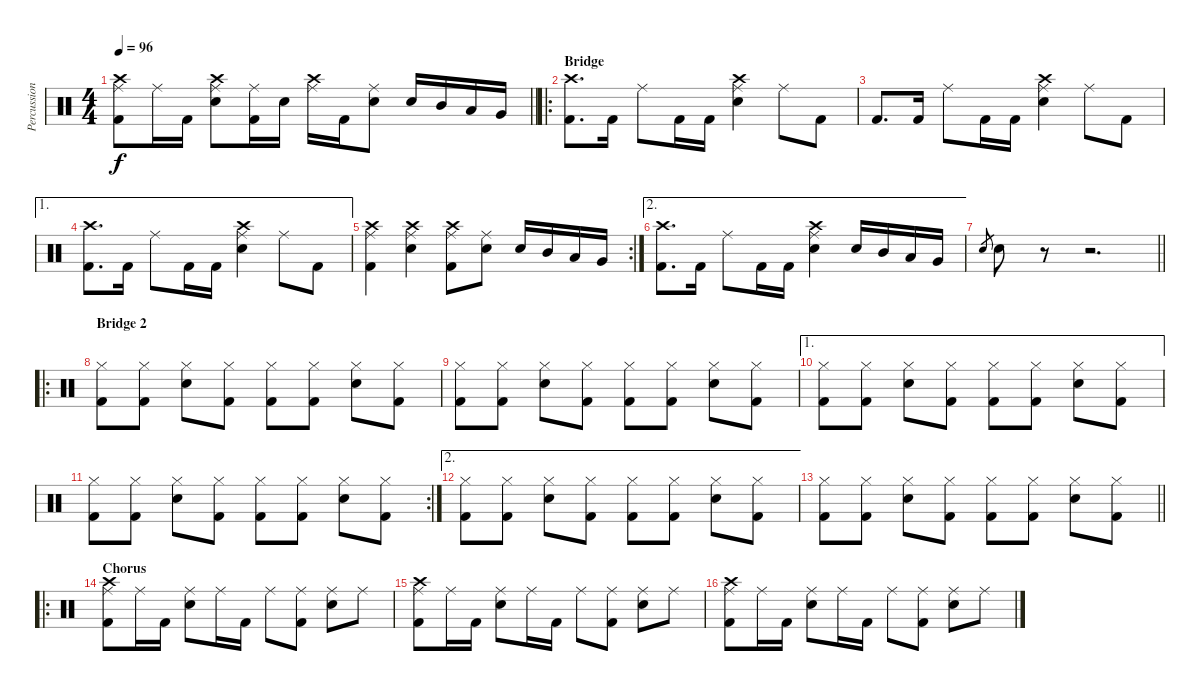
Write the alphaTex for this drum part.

\track ("Percussion" "Percussion") {instrument percussion}
\staff {score}
\articulation defaults
\ts (4 4)
\tempo 96
\clef neutral
\barLineRight lightlight
\ks c
("Crash high (hit)" "Ride (middle)" "Kick (hit) 2").8{dy f} "Ride (middle)".16 "Kick (hit) 2".16 ("Crash high (hit)" "Ride (middle)" "Electric Snare (hit)").8 ("Ride (middle)" "Kick (hit) 2").16 "Electric Snare (hit)".16 ("Crash high (hit)" "Ride (middle)").16 "Kick (hit) 2".16 ("Ride (middle)" "Electric Snare (hit)").8 "Electric Snare (hit)".16 "Mid Tom (hit)".16 "Low Tom (hit)".16 "Very Low Tom (hit)".16 |
\ro
\section ("" "Bridge")
("Crash high (hit)" "Kick (hit) 2").8{d} "Kick (hit) 2".16 "Ride (middle)".8 "Kick (hit) 2".16 "Kick (hit) 2".16 ("Crash high (hit)" "Ride (middle)" "Electric Snare (hit)").4 "Ride (middle)".8 "Kick (hit) 2".8 |
"Kick (hit) 2".8{d} "Kick (hit) 2".16 "Ride (middle)".8 "Kick (hit) 2".16 "Kick (hit) 2".16 ("Crash high (hit)" "Ride (middle)" "Electric Snare (hit)").4 "Ride (middle)".8 "Kick (hit) 2".8 |
\ae 1
("Crash high (hit)" "Kick (hit) 2").8{d} "Kick (hit) 2".16 "Ride (middle)".8 "Kick (hit) 2".16 "Kick (hit) 2".16 ("Crash high (hit)" "Ride (middle)" "Electric Snare (hit)").4 "Ride (middle)".8 "Kick (hit) 2".8 |
\rc 2
("Crash high (hit)" "Ride (middle)" "Kick (hit) 2").4 ("Crash high (hit)" "Ride (middle)" "Electric Snare (hit)").4 ("Crash high (hit)" "Ride (middle)" "Kick (hit) 2").8 ("Ride (middle)" "Electric Snare (hit)").8 "Electric Snare (hit)".16 "Mid Tom (hit)".16 "Low Tom (hit)".16 "Very Low Tom (hit)".16 |
\ae 2
("Crash high (hit)" "Kick (hit) 2").8{d} "Kick (hit) 2".16 "Ride (middle)".8 "Kick (hit) 2".16 "Kick (hit) 2".16 ("Crash high (hit)" "Ride (middle)" "Electric Snare (hit)").4 "Snare (hit) 2".16 "Mid Tom (hit)".16 "Low Tom (hit)".16 "Very Low Tom (hit)".16 |
\barLineRight lightlight "Electric Snare (hit)".8{gr} "Electric Snare (hit)".8
r.8 r.2{d} |
\ro
\section ("" "Bridge 2")
("Hi-Hat (closed)" "Kick (hit) 2").8 ("Hi-Hat (closed)" "Kick (hit) 2").8 ("Hi-Hat (closed)" "Electric Snare (hit)").8 ("Hi-Hat (closed)" "Kick (hit) 2").8 ("Hi-Hat (closed)" "Kick (hit) 2").8 ("Hi-Hat (closed)" "Kick (hit) 2").8 ("Hi-Hat (closed)" "Electric Snare (hit)").8 ("Hi-Hat (closed)" "Kick (hit) 2").8 |
("Hi-Hat (closed)" "Kick (hit) 2").8 ("Hi-Hat (closed)" "Kick (hit) 2").8 ("Hi-Hat (closed)" "Electric Snare (hit)").8 ("Hi-Hat (closed)" "Kick (hit) 2").8 ("Hi-Hat (closed)" "Kick (hit) 2").8 ("Hi-Hat (closed)" "Kick (hit) 2").8 ("Hi-Hat (closed)" "Electric Snare (hit)").8 ("Hi-Hat (closed)" "Kick (hit) 2").8 |
\ae 1
("Hi-Hat (closed)" "Kick (hit) 2").8 ("Hi-Hat (closed)" "Kick (hit) 2").8 ("Hi-Hat (closed)" "Electric Snare (hit)").8 ("Hi-Hat (closed)" "Kick (hit) 2").8 ("Hi-Hat (closed)" "Kick (hit) 2").8 ("Hi-Hat (closed)" "Kick (hit) 2").8 ("Hi-Hat (closed)" "Electric Snare (hit)").8 ("Hi-Hat (closed)" "Kick (hit) 2").8 |
\rc 2
("Hi-Hat (closed)" "Kick (hit) 2").8 ("Hi-Hat (closed)" "Kick (hit) 2").8 ("Hi-Hat (closed)" "Electric Snare (hit)").8 ("Hi-Hat (closed)" "Kick (hit) 2").8 ("Hi-Hat (closed)" "Kick (hit) 2").8 ("Hi-Hat (closed)" "Kick (hit) 2").8 ("Hi-Hat (closed)" "Electric Snare (hit)").8 ("Hi-Hat (closed)" "Kick (hit) 2").8 |
\ae 2
("Hi-Hat (closed)" "Kick (hit) 2").8 ("Hi-Hat (closed)" "Kick (hit) 2").8 ("Hi-Hat (closed)" "Electric Snare (hit)").8 ("Hi-Hat (closed)" "Kick (hit) 2").8 ("Hi-Hat (closed)" "Kick (hit) 2").8 ("Hi-Hat (closed)" "Kick (hit) 2").8 ("Hi-Hat (closed)" "Electric Snare (hit)").8 ("Hi-Hat (closed)" "Kick (hit) 2").8 |
\barLineRight lightlight
("Hi-Hat (closed)" "Kick (hit) 2").8 ("Hi-Hat (closed)" "Kick (hit) 2").8 ("Hi-Hat (closed)" "Electric Snare (hit)").8 ("Hi-Hat (closed)" "Kick (hit) 2").8 ("Hi-Hat (closed)" "Kick (hit) 2").8 ("Hi-Hat (closed)" "Kick (hit) 2").8 ("Hi-Hat (closed)" "Electric Snare (hit)").8 ("Hi-Hat (closed)" "Kick (hit) 2").8 |
\ro
\section ("" "Chorus")
("Crash high (hit)" "Ride (middle)" "Kick (hit) 2").8 "Ride (middle)".16 "Kick (hit) 2".16 ("Ride (middle)" "Electric Snare (hit)").8 "Ride (middle)".16 "Kick (hit) 2".16 "Ride (middle)".8 ("Ride (middle)" "Kick (hit) 2").8 ("Ride (middle)" "Electric Snare (hit)").8 "Ride (middle)".8 |
("Crash high (hit)" "Ride (middle)" "Kick (hit) 2").8 "Ride (middle)".16 "Kick (hit) 2".16 ("Ride (middle)" "Electric Snare (hit)").8 "Ride (middle)".16 "Kick (hit) 2".16 "Ride (middle)".8 ("Ride (middle)" "Kick (hit) 2").8 ("Ride (middle)" "Electric Snare (hit)").8 "Ride (middle)".8 |
("Crash high (hit)" "Ride (middle)" "Kick (hit) 2").8 "Ride (middle)".16 "Kick (hit) 2".16 ("Ride (middle)" "Electric Snare (hit)").8 "Ride (middle)".16 "Kick (hit) 2".16 "Ride (middle)".8 ("Ride (middle)" "Kick (hit) 2").8 ("Ride (middle)" "Electric Snare (hit)").8 "Ride (middle)".8
